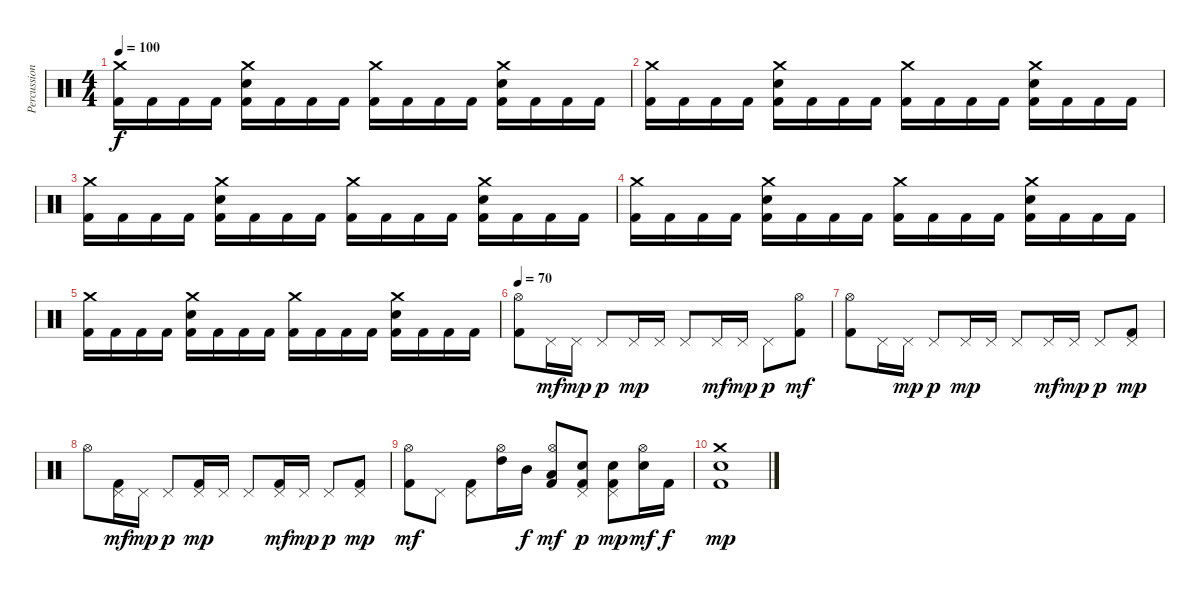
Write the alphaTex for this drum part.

\track ("Percussion" "Percussion") {instrument percussion}
\staff {score}
\articulation defaults
\ts (4 4)
\tempo 100
\clef neutral
\ks aminor
("Crash medium (hit)" "Kick (hit) 2").16{dy f} "Kick (hit) 2".16 "Kick (hit) 2".16 "Kick (hit) 2".16 ("Crash medium (hit)" "Snare (hit) 2" "Kick (hit) 2").16 "Kick (hit) 2".16 "Kick (hit) 2".16 "Kick (hit) 2".16 ("Crash medium (hit)" "Kick (hit) 2").16 "Kick (hit) 2".16 "Kick (hit) 2".16 "Kick (hit) 2".16 ("Crash medium (hit)" "Snare (hit) 2" "Kick (hit) 2").16 "Kick (hit) 2".16 "Kick (hit) 2".16 "Kick (hit) 2".16 |
("Crash medium (hit)" "Kick (hit) 2").16 "Kick (hit) 2".16 "Kick (hit) 2".16 "Kick (hit) 2".16 ("Crash medium (hit)" "Snare (hit) 2" "Kick (hit) 2").16 "Kick (hit) 2".16 "Kick (hit) 2".16 "Kick (hit) 2".16 ("Crash medium (hit)" "Kick (hit) 2").16 "Kick (hit) 2".16 "Kick (hit) 2".16 "Kick (hit) 2".16 ("Crash medium (hit)" "Snare (hit) 2" "Kick (hit) 2").16 "Kick (hit) 2".16 "Kick (hit) 2".16 "Kick (hit) 2".16 |
("Crash medium (hit)" "Kick (hit) 2").16 "Kick (hit) 2".16 "Kick (hit) 2".16 "Kick (hit) 2".16 ("Crash medium (hit)" "Snare (hit) 2" "Kick (hit) 2").16 "Kick (hit) 2".16 "Kick (hit) 2".16 "Kick (hit) 2".16 ("Crash medium (hit)" "Kick (hit) 2").16 "Kick (hit) 2".16 "Kick (hit) 2".16 "Kick (hit) 2".16 ("Crash medium (hit)" "Snare (hit) 2" "Kick (hit) 2").16 "Kick (hit) 2".16 "Kick (hit) 2".16 "Kick (hit) 2".16 |
("Crash medium (hit)" "Kick (hit) 2").16 "Kick (hit) 2".16 "Kick (hit) 2".16 "Kick (hit) 2".16 ("Crash medium (hit)" "Snare (hit) 2" "Kick (hit) 2").16 "Kick (hit) 2".16 "Kick (hit) 2".16 "Kick (hit) 2".16 ("Crash medium (hit)" "Kick (hit) 2").16 "Kick (hit) 2".16 "Kick (hit) 2".16 "Kick (hit) 2".16 ("Crash medium (hit)" "Snare (hit) 2" "Kick (hit) 2").16 "Kick (hit) 2".16 "Kick (hit) 2".16 "Kick (hit) 2".16 |
("Crash medium (hit)" "Kick (hit) 2").16 "Kick (hit) 2".16 "Kick (hit) 2".16 "Kick (hit) 2".16 ("Crash medium (hit)" "Snare (hit) 2" "Kick (hit) 2").16 "Kick (hit) 2".16 "Kick (hit) 2".16 "Kick (hit) 2".16 ("Crash medium (hit)" "Kick (hit) 2").16 "Kick (hit) 2".16 "Kick (hit) 2".16 "Kick (hit) 2".16 ("Crash medium (hit)" "Snare (hit) 2" "Kick (hit) 2").16 "Kick (hit) 2".16 "Kick (hit) 2".16 "Kick (hit) 2".16 |
\tempo 70
("Hi-Hat (open)" "Kick (hit) 2").8 "Pedal Hi-Hat (hit)".16{dy mf} "Pedal Hi-Hat (hit)".16{dy mp} "Pedal Hi-Hat (hit)".8{dy p} "Pedal Hi-Hat (hit)".16{dy mp} "Pedal Hi-Hat (hit)".16 "Pedal Hi-Hat (hit)".8 "Pedal Hi-Hat (hit)".16{dy mf} "Pedal Hi-Hat (hit)".16{dy mp} "Pedal Hi-Hat (hit)".8{dy p} ("Hi-Hat (open)" "Kick (hit) 2").8{dy mf} |
("Hi-Hat (open)" "Kick (hit) 2").8 "Pedal Hi-Hat (hit)".16 "Pedal Hi-Hat (hit)".16{dy mp} "Pedal Hi-Hat (hit)".8{dy p} "Pedal Hi-Hat (hit)".16{dy mp} "Pedal Hi-Hat (hit)".16 "Pedal Hi-Hat (hit)".8 "Pedal Hi-Hat (hit)".16{dy mf} "Pedal Hi-Hat (hit)".16{dy mp} "Pedal Hi-Hat (hit)".8{dy p} ("Pedal Hi-Hat (hit)" "Kick (hit) 2").8{dy mp} |
"Hi-Hat (open)".8 ("Pedal Hi-Hat (hit)" "Kick (hit) 2").16{dy mf} "Pedal Hi-Hat (hit)".16{dy mp} "Pedal Hi-Hat (hit)".8{dy p} ("Pedal Hi-Hat (hit)" "Kick (hit) 2").16{dy mp} "Pedal Hi-Hat (hit)".16 "Pedal Hi-Hat (hit)".8 ("Pedal Hi-Hat (hit)" "Kick (hit) 2").16{dy mf} "Pedal Hi-Hat (hit)".16{dy mp} "Pedal Hi-Hat (hit)".8{dy p} ("Pedal Hi-Hat (hit)" "Kick (hit) 2").8{dy mp} |
("Hi-Hat (open)" "Kick (hit) 2").8{dy mf} "Pedal Hi-Hat (hit)".8 ("Pedal Hi-Hat (hit)" "Kick (hit) 2").8 ("Hi-Hat (open)" "High Tom (hit)").16 "Mid Tom (hit)".16{dy f} ("Hi-Hat (open)" "Low Tom (hit)" "Kick (hit) 2").8{dy mf} ("Pedal Hi-Hat (hit)" "Snare (hit) 2" "Kick (hit) 2").8{dy p} ("Pedal Hi-Hat (hit)" "Snare (hit) 2" "Kick (hit) 2").8{dy mp} ("Hi-Hat (open)" "Snare (hit) 2").16{dy mf} "Kick (hit) 2".16{dy f} |
("Crash medium (hit)" "Snare (hit) 2" "Kick (hit) 2").1{dy mp}
